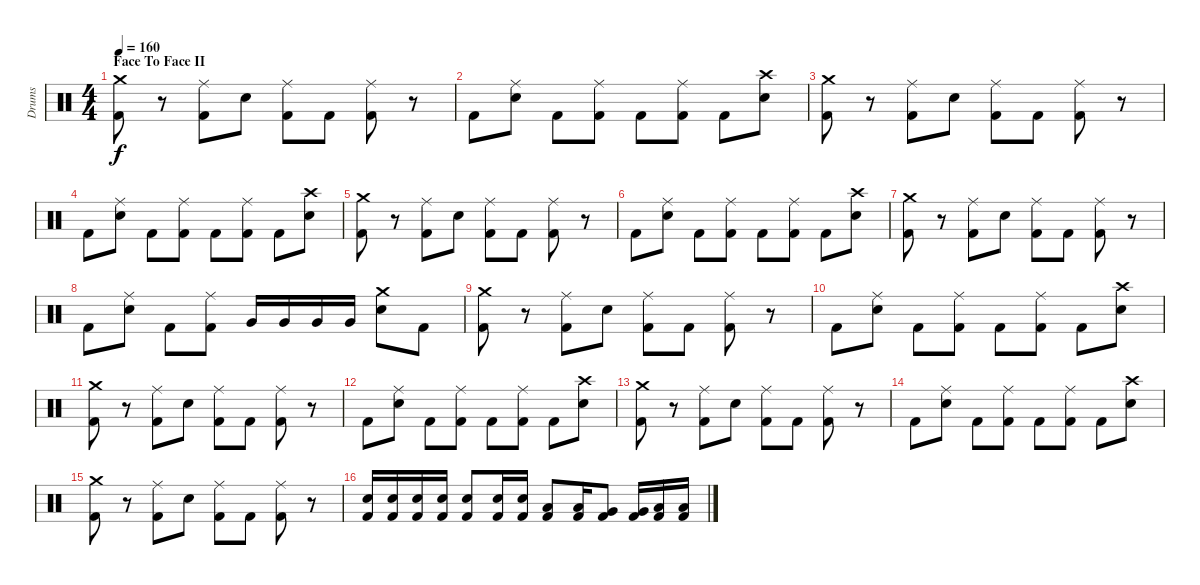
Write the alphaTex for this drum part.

\track ("Drums" "Drums") {instrument percussion}
\staff {score}
\articulation defaults
\ts (4 4)
\section ("" "Face To Face II")
\tempo 160
\clef neutral
\ks c
("Crash medium (hit)" "Kick (hit) 2").8{dy f} r.8 ("Ride (middle)" "Kick (hit) 2").8 "Electric Snare (hit)".8 ("Ride (middle)" "Kick (hit) 2").8 "Kick (hit) 2".8 ("Ride (middle)" "Kick (hit) 2").8 r.8 |
"Kick (hit) 2".8 ("Ride (middle)" "Electric Snare (hit)").8 "Kick (hit) 2".8 ("Ride (middle)" "Kick (hit) 2").8 "Kick (hit) 2".8 ("Ride (middle)" "Kick (hit) 2").8 "Kick (hit) 2".8 ("Crash high (hit)" "Electric Snare (hit)").8 |
("Crash medium (hit)" "Kick (hit) 2").8 r.8 ("Ride (middle)" "Kick (hit) 2").8 "Electric Snare (hit)".8 ("Ride (middle)" "Kick (hit) 2").8 "Kick (hit) 2".8 ("Ride (middle)" "Kick (hit) 2").8 r.8 |
"Kick (hit) 2".8 ("Ride (middle)" "Electric Snare (hit)").8 "Kick (hit) 2".8 ("Ride (middle)" "Kick (hit) 2").8 "Kick (hit) 2".8 ("Ride (middle)" "Kick (hit) 2").8 "Kick (hit) 2".8 ("Crash high (hit)" "Electric Snare (hit)").8 |
("Crash medium (hit)" "Kick (hit) 2").8 r.8 ("Ride (middle)" "Kick (hit) 2").8 "Electric Snare (hit)".8 ("Ride (middle)" "Kick (hit) 2").8 "Kick (hit) 2".8 ("Ride (middle)" "Kick (hit) 2").8 r.8 |
"Kick (hit) 2".8 ("Ride (middle)" "Electric Snare (hit)").8 "Kick (hit) 2".8 ("Ride (middle)" "Kick (hit) 2").8 "Kick (hit) 2".8 ("Ride (middle)" "Kick (hit) 2").8 "Kick (hit) 2".8 ("Crash high (hit)" "Electric Snare (hit)").8 |
("Crash medium (hit)" "Kick (hit) 2").8 r.8 ("Ride (middle)" "Kick (hit) 2").8 "Electric Snare (hit)".8 ("Ride (middle)" "Kick (hit) 2").8 "Kick (hit) 2".8 ("Ride (middle)" "Kick (hit) 2").8 r.8 |
"Kick (hit) 2".8 ("Ride (middle)" "Electric Snare (hit)").8 "Kick (hit) 2".8 ("Ride (middle)" "Kick (hit) 2").8 "Very Low Tom (hit)".16 "Very Low Tom (hit)".16 "Very Low Tom (hit)".16 "Very Low Tom (hit)".16 ("Crash medium (hit)" "Electric Snare (hit)").8 "Kick (hit) 2".8 |
("Crash medium (hit)" "Kick (hit) 2").8 r.8 ("Ride (middle)" "Kick (hit) 2").8 "Electric Snare (hit)".8 ("Ride (middle)" "Kick (hit) 2").8 "Kick (hit) 2".8 ("Ride (middle)" "Kick (hit) 2").8 r.8 |
"Kick (hit) 2".8 ("Ride (middle)" "Electric Snare (hit)").8 "Kick (hit) 2".8 ("Ride (middle)" "Kick (hit) 2").8 "Kick (hit) 2".8 ("Ride (middle)" "Kick (hit) 2").8 "Kick (hit) 2".8 ("Crash high (hit)" "Electric Snare (hit)").8 |
("Crash medium (hit)" "Kick (hit) 2").8 r.8 ("Ride (middle)" "Kick (hit) 2").8 "Electric Snare (hit)".8 ("Ride (middle)" "Kick (hit) 2").8 "Kick (hit) 2".8 ("Ride (middle)" "Kick (hit) 2").8 r.8 |
"Kick (hit) 2".8 ("Ride (middle)" "Electric Snare (hit)").8 "Kick (hit) 2".8 ("Ride (middle)" "Kick (hit) 2").8 "Kick (hit) 2".8 ("Ride (middle)" "Kick (hit) 2").8 "Kick (hit) 2".8 ("Crash high (hit)" "Electric Snare (hit)").8 |
("Crash medium (hit)" "Kick (hit) 2").8 r.8 ("Ride (middle)" "Kick (hit) 2").8 "Electric Snare (hit)".8 ("Ride (middle)" "Kick (hit) 2").8 "Kick (hit) 2".8 ("Ride (middle)" "Kick (hit) 2").8 r.8 |
"Kick (hit) 2".8 ("Ride (middle)" "Electric Snare (hit)").8 "Kick (hit) 2".8 ("Ride (middle)" "Kick (hit) 2").8 "Kick (hit) 2".8 ("Ride (middle)" "Kick (hit) 2").8 "Kick (hit) 2".8 ("Crash high (hit)" "Electric Snare (hit)").8 |
("Crash medium (hit)" "Kick (hit) 2").8 r.8 ("Ride (middle)" "Kick (hit) 2").8 "Electric Snare (hit)".8 ("Ride (middle)" "Kick (hit) 2").8 "Kick (hit) 2".8 ("Ride (middle)" "Kick (hit) 2").8 r.8 |
("Electric Snare (hit)" "Kick (hit) 2").16 ("Electric Snare (hit)" "Kick (hit) 2").16 ("Electric Snare (hit)" "Kick (hit) 2").16 ("Electric Snare (hit)" "Kick (hit) 2").16 ("Electric Snare (hit)" "Kick (hit) 2").8 ("Electric Snare (hit)" "Kick (hit) 2").16 ("Electric Snare (hit)" "Kick (hit) 2").16 ("Low Tom (hit)" "Kick (hit) 2").8 ("Low Tom (hit)" "Kick (hit) 2").16 ("Very Low Tom (hit)" "Kick (hit) 2").8 ("Very Low Tom (hit)" "Kick (hit) 2").16 ("Low Floor Tom (hit)" "Kick (hit) 2").16 ("Low Floor Tom (hit)" "Kick (hit) 2").16
